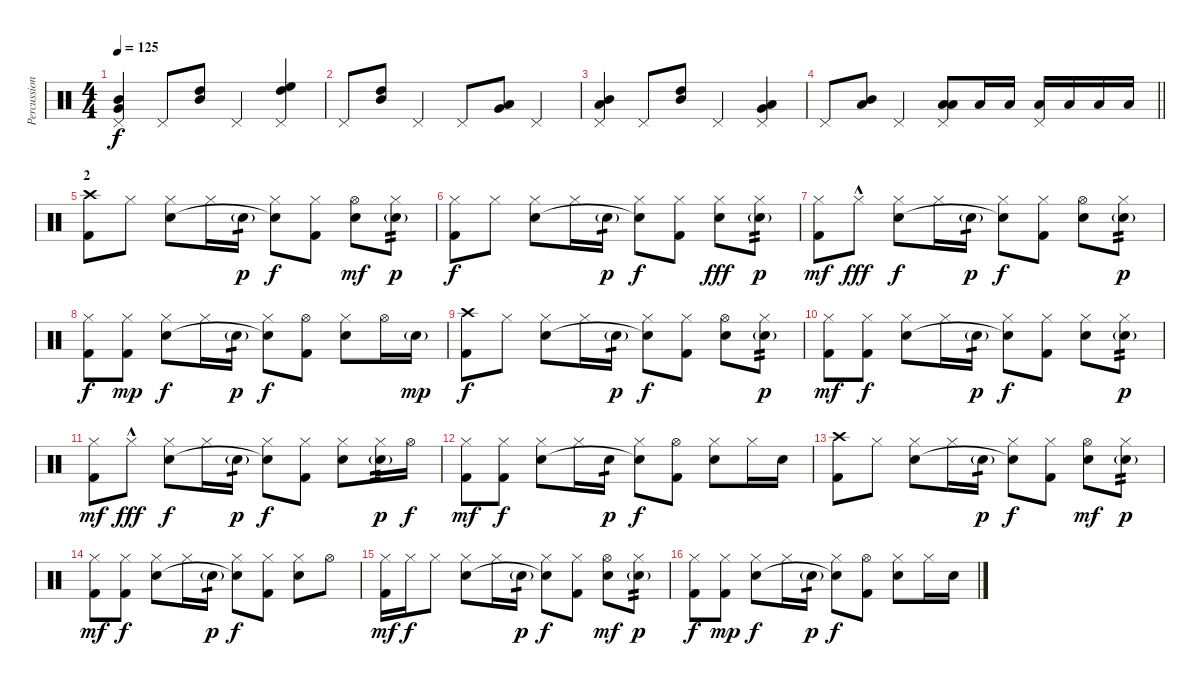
\track ("Percussion" "Percussion") {instrument percussion}
\staff {score}
\articulation defaults
\ts (4 4)
\tempo 125
\clef neutral
\ks c
("Mid Tom (hit)" "Very Low Tom (hit)" "Pedal Hi-Hat (hit)").4{dy f} "Pedal Hi-Hat (hit)".8 ("High Tom (hit)" "Mid Tom (hit)").8 "Pedal Hi-Hat (hit)".4 ("High Floor Tom (hit)" "High Tom (hit)" "Pedal Hi-Hat (hit)").4 |
"Pedal Hi-Hat (hit)".8 ("High Tom (hit)" "Mid Tom (hit)").8 "Pedal Hi-Hat (hit)".4 "Pedal Hi-Hat (hit)".8 ("Very Low Tom (hit)" "Low Floor Tom (hit)").8 "Pedal Hi-Hat (hit)".4 |
("Mid Tom (hit)" "Low Tom (hit)" "Pedal Hi-Hat (hit)").4 "Pedal Hi-Hat (hit)".8 ("High Tom (hit)" "Mid Tom (hit)").8 "Pedal Hi-Hat (hit)".4 ("Low Tom (hit)" "Very Low Tom (hit)" "Pedal Hi-Hat (hit)").4 |
\barLineRight lightlight "Pedal Hi-Hat (hit)".8
("Mid Tom (hit)" "Low Tom (hit)").8 "Pedal Hi-Hat (hit)".4 ("Low Tom (hit)" "Low Floor Tom (hit)" "Pedal Hi-Hat (hit)").8 "Low Floor Tom (hit)".16 "Low Floor Tom (hit)".16 ("Low Floor Tom (hit)" "Pedal Hi-Hat (hit)").16 "Low Floor Tom (hit)".16 "Low Floor Tom (hit)".16 "Low Floor Tom (hit)".16 |
\section ("" "2")
("Crash high (hit)" "Kick (hit) 2").8 "Hi-Hat (closed)".8 ("Hi-Hat (closed)" "Snare (hit) 2").8 "Hi-Hat (closed)".16 "Snare (hit) 2"{g}.16{tp 1 dy p} ("Hi-Hat (closed)" "Snare (hit) 2"{t}).8{dy f} ("Hi-Hat (closed)" "Kick (hit) 2").8 ("Hi-Hat (open)" "Snare (hit) 2").8{dy mf} ("Hi-Hat (closed)" "Snare (hit) 2"{g}).8{tp 2 dy p} |
("Hi-Hat (closed)" "Kick (hit) 2").8{dy f} "Hi-Hat (closed)".8 ("Hi-Hat (closed)" "Snare (hit) 2").8 "Hi-Hat (closed)".16 "Snare (hit) 2"{g}.16{tp 1 dy p} ("Hi-Hat (closed)" "Snare (hit) 2"{t}).8{dy f} ("Hi-Hat (closed)" "Kick (hit) 2").8 ("Hi-Hat (closed)" "Snare (hit) 2").8{dy fff} ("Hi-Hat (closed)" "Snare (hit) 2"{g}).8{tp 2 dy p} |
("Hi-Hat (closed)" "Kick (hit) 2").8{dy mf} "Hi-Hat (closed)"{hac}.8{dy fff} ("Hi-Hat (closed)" "Snare (hit) 2").8{dy f} "Hi-Hat (closed)".16 "Snare (hit) 2"{g}.16{tp 1 dy p} ("Hi-Hat (closed)" "Snare (hit) 2"{t}).8{dy f} ("Hi-Hat (closed)" "Kick (hit) 2").8 ("Hi-Hat (open)" "Snare (hit) 2").8 ("Hi-Hat (closed)" "Snare (hit) 2"{g}).8{tp 2 dy p} |
("Hi-Hat (closed)" "Kick (hit) 2").8{dy f} ("Hi-Hat (closed)" "Kick (hit) 2").8{dy mp} ("Hi-Hat (closed)" "Snare (hit) 2").8{dy f} "Hi-Hat (closed)".16 "Snare (hit) 2"{g}.16{tp 1 dy p} ("Hi-Hat (closed)" "Snare (hit) 2"{t}).8{dy f} ("Hi-Hat (open)" "Kick (hit) 2").8 ("Hi-Hat (closed)" "Snare (hit) 2").8 "Hi-Hat (open)".16 "Snare (hit) 2"{g}.16{dy mp} |
("Crash high (hit)" "Kick (hit) 2").8{dy f} "Hi-Hat (closed)".8 ("Hi-Hat (closed)" "Snare (hit) 2").8 "Hi-Hat (closed)".16 "Snare (hit) 2"{g}.16{tp 1 dy p} ("Hi-Hat (closed)" "Snare (hit) 2"{t}).8{dy f} ("Hi-Hat (closed)" "Kick (hit) 2").8 ("Hi-Hat (open)" "Snare (hit) 2").8 ("Hi-Hat (closed)" "Snare (hit) 2"{g}).8{tp 2 dy p} |
("Hi-Hat (closed)" "Kick (hit) 2").8{dy mf} ("Hi-Hat (closed)" "Kick (hit) 2").8{dy f} ("Hi-Hat (closed)" "Snare (hit) 2").8 "Hi-Hat (closed)".16 "Snare (hit) 2"{g}.16{tp 1 dy p} ("Hi-Hat (closed)" "Snare (hit) 2"{t}).8{dy f} ("Hi-Hat (closed)" "Kick (hit) 2").8 ("Hi-Hat (closed)" "Snare (hit) 2").8 ("Hi-Hat (closed)" "Snare (hit) 2"{g}).8{tp 2 dy p} |
("Hi-Hat (closed)" "Kick (hit) 2").8{dy mf} "Hi-Hat (closed)"{hac}.8{dy fff} ("Hi-Hat (closed)" "Snare (hit) 2").8{dy f} "Hi-Hat (closed)".16 "Snare (hit) 2"{g}.16{tp 1 dy p} ("Hi-Hat (closed)" "Snare (hit) 2"{t}).8{dy f} ("Hi-Hat (closed)" "Kick (hit) 2").8 ("Hi-Hat (closed)" "Snare (hit) 2").8 ("Hi-Hat (closed)" "Snare (hit) 2"{g}).16{tp 2 dy p} "Hi-Hat (open)".16{dy f} |
("Hi-Hat (closed)" "Kick (hit) 2").8{dy mf} ("Hi-Hat (closed)" "Kick (hit) 2").8{dy f} ("Hi-Hat (closed)" "Snare (hit) 2").8 "Hi-Hat (closed)".16 "Snare (hit) 2".16{tp 1 dy p} ("Hi-Hat (closed)" "Snare (hit) 2"{t}).8{dy f} ("Hi-Hat (open)" "Kick (hit) 2").8 ("Hi-Hat (closed)" "Snare (hit) 2").8 "Hi-Hat (closed)".16 "Snare (hit) 2".16 |
("Crash high (hit)" "Kick (hit) 2").8 "Hi-Hat (closed)".8 ("Hi-Hat (closed)" "Snare (hit) 2").8 "Hi-Hat (closed)".16 "Snare (hit) 2"{g}.16{tp 1 dy p} ("Hi-Hat (closed)" "Snare (hit) 2"{t}).8{dy f} ("Hi-Hat (closed)" "Kick (hit) 2").8 ("Hi-Hat (open)" "Snare (hit) 2").8{dy mf} ("Hi-Hat (closed)" "Snare (hit) 2"{g}).8{tp 2 dy p} |
("Hi-Hat (closed)" "Kick (hit) 2").8{dy mf} ("Hi-Hat (closed)" "Kick (hit) 2").8{dy f} ("Hi-Hat (closed)" "Snare (hit) 2").8 "Hi-Hat (closed)".16 "Snare (hit) 2"{g}.16{tp 1 dy p} ("Hi-Hat (closed)" "Snare (hit) 2"{t}).8{dy f} ("Hi-Hat (closed)" "Kick (hit) 2").8 ("Hi-Hat (closed)" "Snare (hit) 2").8 "Hi-Hat (open)".8 |
("Hi-Hat (closed)" "Kick (hit) 2").16{dy mf} "Hi-Hat (closed)".16{dy f} "Hi-Hat (closed)".8 ("Hi-Hat (closed)" "Snare (hit) 2").8 "Hi-Hat (closed)".16 "Snare (hit) 2"{g}.16{tp 1 dy p} ("Hi-Hat (closed)" "Snare (hit) 2"{t}).8{dy f} ("Hi-Hat (closed)" "Kick (hit) 2").8 ("Hi-Hat (open)" "Snare (hit) 2").8{dy mf} ("Hi-Hat (closed)" "Snare (hit) 2"{g}).8{tp 2 dy p} |
("Hi-Hat (closed)" "Kick (hit) 2").8{dy f} ("Hi-Hat (closed)" "Kick (hit) 2").8{dy mp} ("Hi-Hat (closed)" "Snare (hit) 2").8{dy f} "Hi-Hat (closed)".16 "Snare (hit) 2"{g}.16{tp 1 dy p} ("Hi-Hat (closed)" "Snare (hit) 2"{t}).8{dy f} ("Hi-Hat (open)" "Kick (hit) 2").8 ("Hi-Hat (closed)" "Snare (hit) 2").8 "Hi-Hat (closed)".16 "Snare (hit) 2".16
